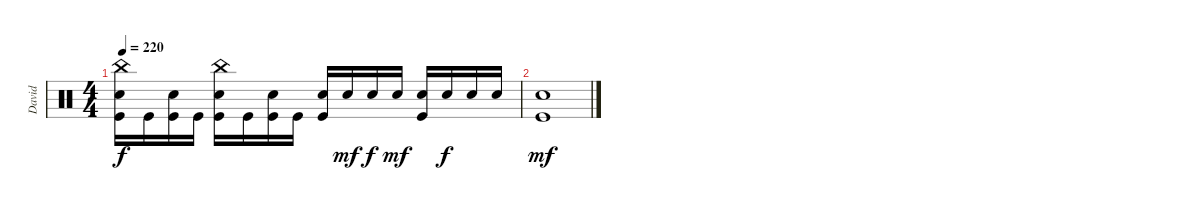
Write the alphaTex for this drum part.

\track ("David" "David") {instrument percussion}
\staff {score}
\articulation defaults
\ts (4 4)
\tempo 220
\clef neutral
\ks c
("China (hit)" "Electric Snare (hit)" "Kick (hit)").16{dy f} "Kick (hit)".16 ("Electric Snare (hit)" "Kick (hit)").16 "Kick (hit)".16 ("China (hit)" "Electric Snare (hit)" "Kick (hit)").16 "Kick (hit)".16 ("Electric Snare (hit)" "Kick (hit)").16 "Kick (hit)".16 ("Electric Snare (hit)" "Kick (hit)").16 "Electric Snare (hit)".16{dy mf} "Electric Snare (hit)".16{dy f} "Electric Snare (hit)".16{dy mf} ("Electric Snare (hit)" "Kick (hit)").16 "Electric Snare (hit)".16{dy f} "Electric Snare (hit)".16 "Electric Snare (hit)".16 |
("Electric Snare (hit)" "Kick (hit)").1{dy mf}
